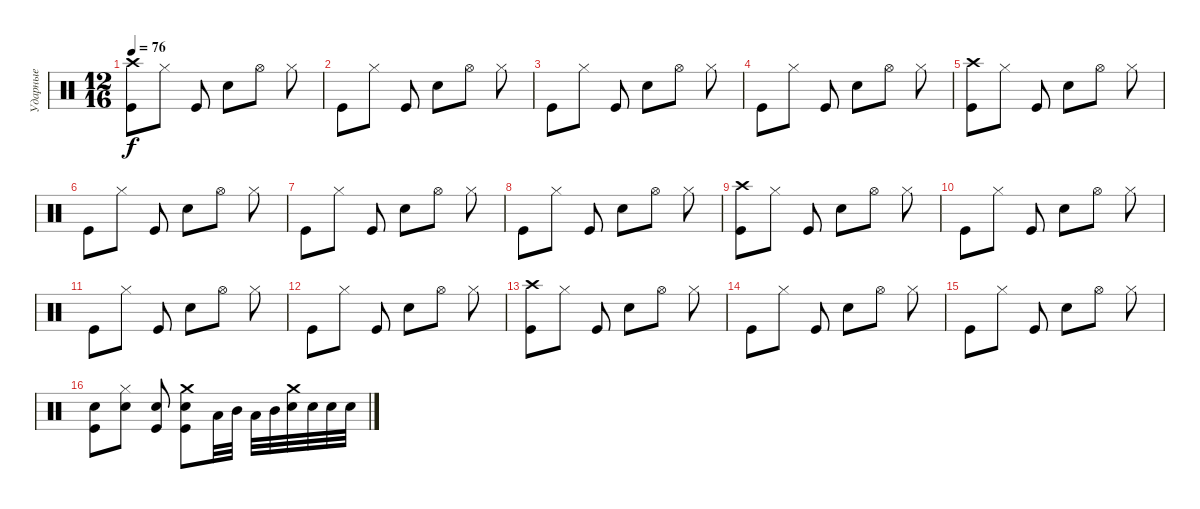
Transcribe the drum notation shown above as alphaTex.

\track ("Ударные" "Ударные") {instrument percussion}
\staff {score}
\articulation defaults
\ts (12 16)
\tempo 76
\clef neutral
\ks c
("Kick (hit)" "Crash high (hit)").8{dy f} "Hi-Hat (closed)".8 "Kick (hit)".8 "Electric Snare (hit)".8 "Hi-Hat (open)".8 "Hi-Hat (closed)".8 |
"Kick (hit)".8 "Hi-Hat (closed)".8 "Kick (hit)".8 "Electric Snare (hit)".8 "Hi-Hat (open)".8 "Hi-Hat (closed)".8 |
"Kick (hit)".8 "Hi-Hat (closed)".8 "Kick (hit)".8 "Electric Snare (hit)".8 "Hi-Hat (open)".8 "Hi-Hat (closed)".8 |
"Kick (hit)".8 "Hi-Hat (closed)".8 "Kick (hit)".8 "Electric Snare (hit)".8 "Hi-Hat (open)".8 "Hi-Hat (closed)".8 |
("Kick (hit)" "Crash high (hit)").8 "Hi-Hat (closed)".8 "Kick (hit)".8 "Electric Snare (hit)".8 "Hi-Hat (open)".8 "Hi-Hat (closed)".8 |
"Kick (hit)".8 "Hi-Hat (closed)".8 "Kick (hit)".8 "Electric Snare (hit)".8 "Hi-Hat (open)".8 "Hi-Hat (closed)".8 |
"Kick (hit)".8 "Hi-Hat (closed)".8 "Kick (hit)".8 "Electric Snare (hit)".8 "Hi-Hat (open)".8 "Hi-Hat (closed)".8 |
"Kick (hit)".8 "Hi-Hat (closed)".8 "Kick (hit)".8 "Electric Snare (hit)".8 "Hi-Hat (open)".8 "Hi-Hat (closed)".8 |
("Kick (hit)" "Crash high (hit)").8 "Hi-Hat (closed)".8 "Kick (hit)".8 "Electric Snare (hit)".8 "Hi-Hat (open)".8 "Hi-Hat (closed)".8 |
"Kick (hit)".8 "Hi-Hat (closed)".8 "Kick (hit)".8 "Electric Snare (hit)".8 "Hi-Hat (open)".8 "Hi-Hat (closed)".8 |
"Kick (hit)".8 "Hi-Hat (closed)".8 "Kick (hit)".8 "Electric Snare (hit)".8 "Hi-Hat (open)".8 "Hi-Hat (closed)".8 |
"Kick (hit)".8 "Hi-Hat (closed)".8 "Kick (hit)".8 "Electric Snare (hit)".8 "Hi-Hat (open)".8 "Hi-Hat (closed)".8 |
("Kick (hit)" "Crash high (hit)").8 "Hi-Hat (closed)".8 "Kick (hit)".8 "Electric Snare (hit)".8 "Hi-Hat (open)".8 "Hi-Hat (closed)".8 |
"Kick (hit)".8 "Hi-Hat (closed)".8 "Kick (hit)".8 "Electric Snare (hit)".8 "Hi-Hat (open)".8 "Hi-Hat (closed)".8 |
"Kick (hit)".8 "Hi-Hat (closed)".8 "Kick (hit)".8 "Electric Snare (hit)".8 "Hi-Hat (open)".8 "Hi-Hat (closed)".8 |
("Kick (hit)" "Electric Snare (hit)").8 ("Hi-Hat (closed)" "Electric Snare (hit)").8 ("Kick (hit)" "Electric Snare (hit)").8 ("Electric Snare (hit)" "Kick (hit)" "Crash medium (hit)").8 "Low Tom (hit)".32 "Mid Tom (hit)".32 "Low Tom (hit)".32 "Mid Tom (hit)".32 ("Electric Snare (hit)" "Crash medium (hit)").32 "Electric Snare (hit)".32 "Electric Snare (hit)".32 "Electric Snare (hit)".32
